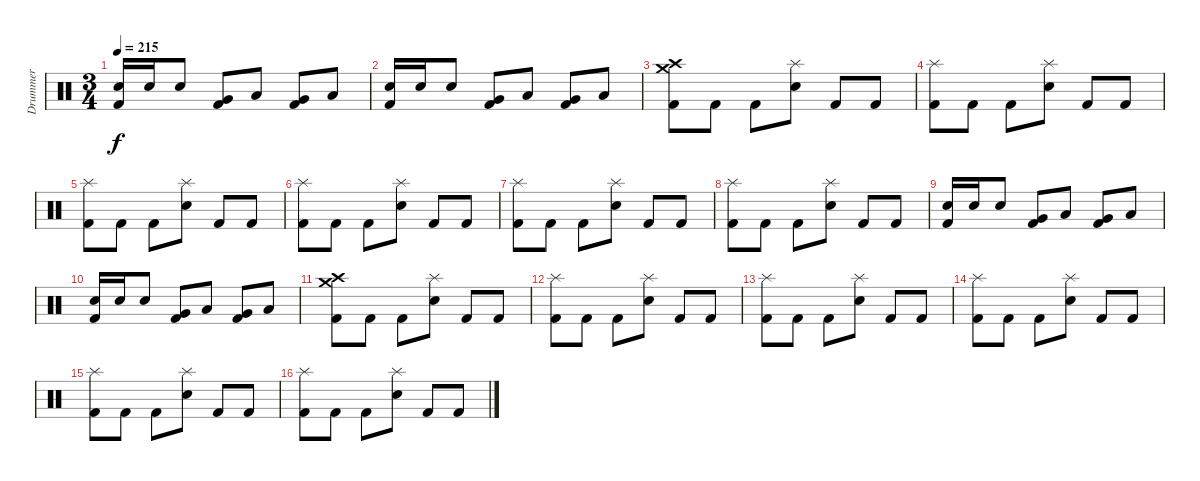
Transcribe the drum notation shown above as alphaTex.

\track ("Drummer" "Drummer") {instrument percussion bank 7}
\staff {score}
\articulation defaults
\ts (3 4)
\tempo 215
\clef neutral
\ks c
("Electric Snare (hit)" "Kick (hit) 2").16{dy f} "Electric Snare (hit)".16 "Electric Snare (hit)".8 ("Very Low Tom (hit)" "Kick (hit) 2").8 "Low Tom (hit)".8 ("Very Low Tom (hit)" "Kick (hit) 2").8 "Low Floor Tom (hit)".8 |
("Electric Snare (hit)" "Kick (hit) 2").16 "Electric Snare (hit)".16 "Electric Snare (hit)".8 ("Very Low Tom (hit)" "Kick (hit) 2").8 "Low Tom (hit)".8 ("Very Low Tom (hit)" "Kick (hit) 2").8 "Low Floor Tom (hit)".8 |
("Crash medium (hit)" "Crash high (hit)" "Kick (hit) 2").8 "Kick (hit) 2".8 "Kick (hit) 2".8 ("Splash (hit)" "Electric Snare (hit)").8 "Kick (hit) 2".8 "Kick (hit) 2".8 |
("Splash (hit)" "Kick (hit) 2").8 "Kick (hit) 2".8 "Kick (hit) 2".8 ("Splash (hit)" "Electric Snare (hit)").8 "Kick (hit) 2".8 "Kick (hit) 2".8 |
("Splash (hit)" "Kick (hit) 2").8 "Kick (hit) 2".8 "Kick (hit) 2".8 ("Splash (hit)" "Electric Snare (hit)").8 "Kick (hit) 2".8 "Kick (hit) 2".8 |
("Splash (hit)" "Kick (hit) 2").8 "Kick (hit) 2".8 "Kick (hit) 2".8 ("Splash (hit)" "Electric Snare (hit)").8 "Kick (hit) 2".8 "Kick (hit) 2".8 |
("Splash (hit)" "Kick (hit) 2").8 "Kick (hit) 2".8 "Kick (hit) 2".8 ("Splash (hit)" "Electric Snare (hit)").8 "Kick (hit) 2".8 "Kick (hit) 2".8 |
("Splash (hit)" "Kick (hit) 2").8 "Kick (hit) 2".8 "Kick (hit) 2".8 ("Splash (hit)" "Electric Snare (hit)").8 "Kick (hit) 2".8 "Kick (hit) 2".8 |
("Electric Snare (hit)" "Kick (hit) 2").16 "Electric Snare (hit)".16 "Electric Snare (hit)".8 ("Very Low Tom (hit)" "Kick (hit) 2").8 "Low Tom (hit)".8 ("Very Low Tom (hit)" "Kick (hit) 2").8 "Low Floor Tom (hit)".8 |
("Electric Snare (hit)" "Kick (hit) 2").16 "Electric Snare (hit)".16 "Electric Snare (hit)".8 ("Very Low Tom (hit)" "Kick (hit) 2").8 "Low Tom (hit)".8 ("Very Low Tom (hit)" "Kick (hit) 2").8 "Low Floor Tom (hit)".8 |
("Crash medium (hit)" "Crash high (hit)" "Kick (hit) 2").8 "Kick (hit) 2".8 "Kick (hit) 2".8 ("Splash (hit)" "Electric Snare (hit)").8 "Kick (hit) 2".8 "Kick (hit) 2".8 |
("Splash (hit)" "Kick (hit) 2").8 "Kick (hit) 2".8 "Kick (hit) 2".8 ("Splash (hit)" "Electric Snare (hit)").8 "Kick (hit) 2".8 "Kick (hit) 2".8 |
("Splash (hit)" "Kick (hit) 2").8 "Kick (hit) 2".8 "Kick (hit) 2".8 ("Splash (hit)" "Electric Snare (hit)").8 "Kick (hit) 2".8 "Kick (hit) 2".8 |
("Splash (hit)" "Kick (hit) 2").8 "Kick (hit) 2".8 "Kick (hit) 2".8 ("Splash (hit)" "Electric Snare (hit)").8 "Kick (hit) 2".8 "Kick (hit) 2".8 |
("Splash (hit)" "Kick (hit) 2").8 "Kick (hit) 2".8 "Kick (hit) 2".8 ("Splash (hit)" "Electric Snare (hit)").8 "Kick (hit) 2".8 "Kick (hit) 2".8 |
("Splash (hit)" "Kick (hit) 2").8 "Kick (hit) 2".8 "Kick (hit) 2".8 ("Splash (hit)" "Electric Snare (hit)").8 "Kick (hit) 2".8 "Kick (hit) 2".8
